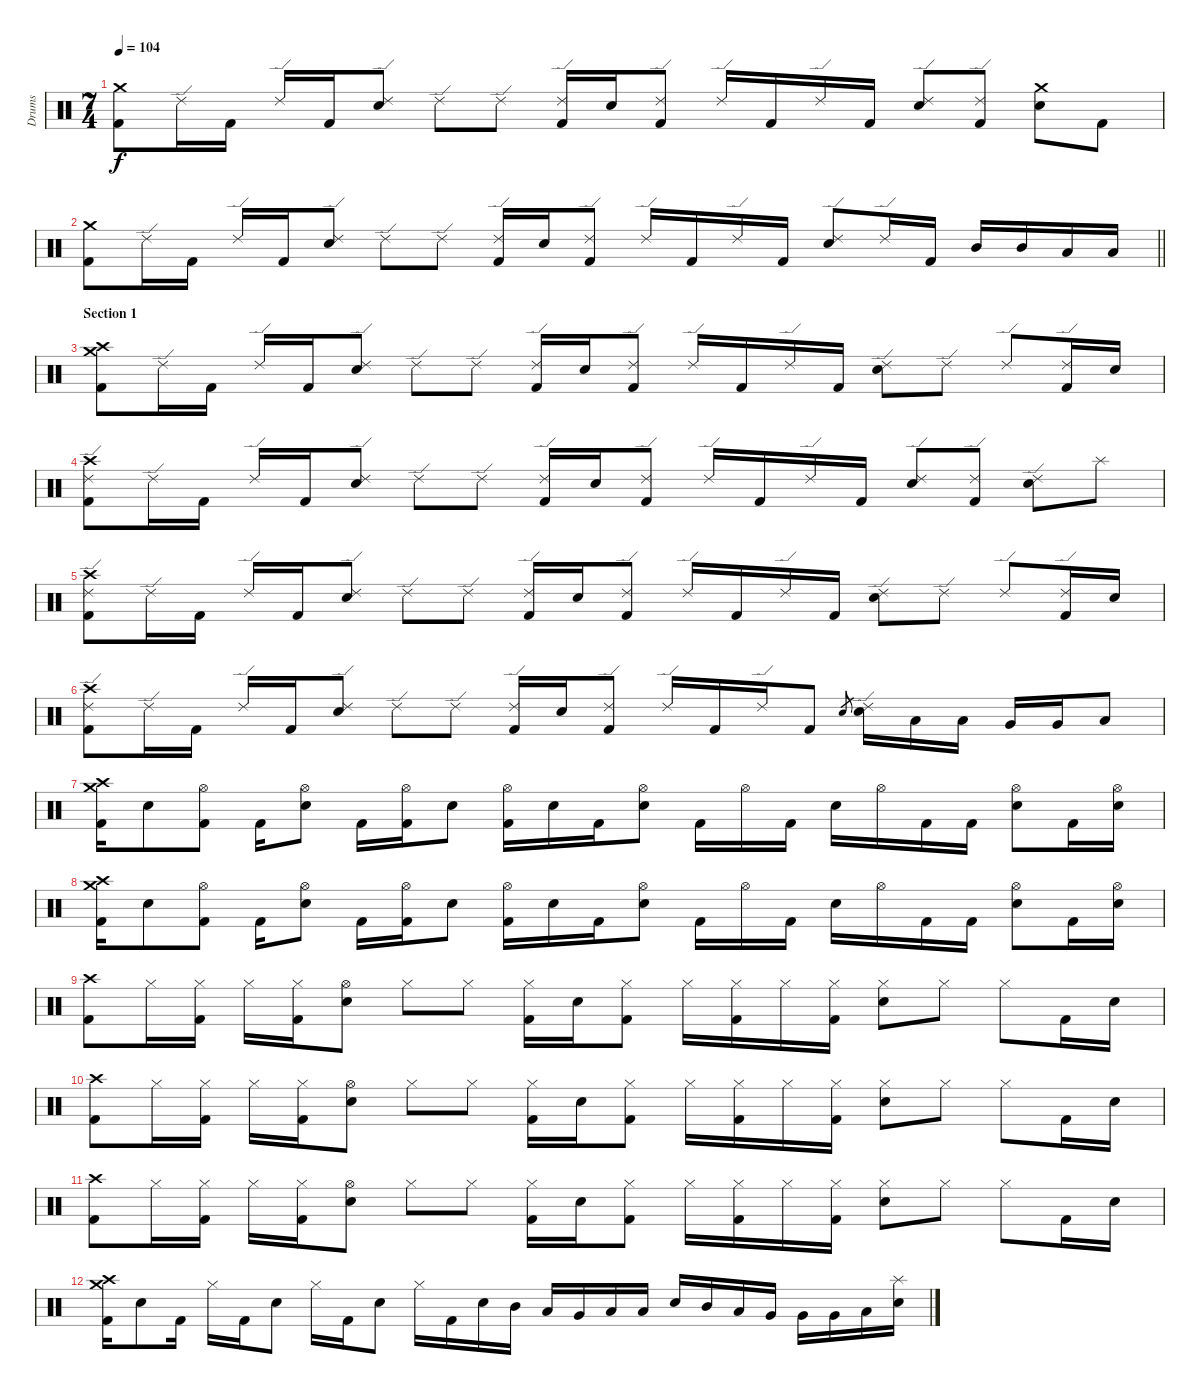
\track ("Drums" "Drums") {instrument percussion}
\staff {score}
\articulation defaults
\ts (7 4)
\tempo 104
\clef neutral
\ks c
("Crash medium (hit)" "Kick (hit) 2").8{dy f} "Ride (edge) 2".16 "Kick (hit) 2".16 "Ride (edge) 2".16 "Kick (hit) 2".16 ("Ride (edge) 2" "Electric Snare (hit)").8 "Ride (edge) 2".8 "Ride (edge) 2".8 ("Ride (edge) 2" "Kick (hit) 2").16 "Electric Snare (hit)".16 ("Ride (edge) 2" "Kick (hit) 2").8 "Ride (edge) 2".16 "Kick (hit) 2".16 "Ride (edge) 2".16 "Kick (hit) 2".16 ("Ride (edge) 2" "Electric Snare (hit)").8 ("Ride (edge) 2" "Kick (hit) 2").8 ("Crash medium (hit)" "Electric Snare (hit)").8 "Kick (hit) 2".8 |
\barLineRight lightlight
("Crash medium (hit)" "Kick (hit) 2").8 "Ride (edge) 2".16 "Kick (hit) 2".16 "Ride (edge) 2".16 "Kick (hit) 2".16 ("Ride (edge) 2" "Electric Snare (hit)").8 "Ride (edge) 2".8 "Ride (edge) 2".8 ("Ride (edge) 2" "Kick (hit) 2").16 "Electric Snare (hit)".16 ("Ride (edge) 2" "Kick (hit) 2").8 "Ride (edge) 2".16 "Kick (hit) 2".16 "Ride (edge) 2".16 "Kick (hit) 2".16 ("Ride (edge) 2" "Electric Snare (hit)").8 "Ride (edge) 2".16 "Kick (hit) 2".16 "Mid Tom (hit)".16 "Mid Tom (hit)".16 "Low Tom (hit)".16 "Low Tom (hit)".16 |
\section ("" "Section 1")
("Crash medium (hit)" "Crash high (hit)" "Kick (hit) 2").8 "Ride (edge) 2".16 "Kick (hit) 2".16 "Ride (edge) 2".16 "Kick (hit) 2".16 ("Ride (edge) 2" "Electric Snare (hit)").8 "Ride (edge) 2".8 "Ride (edge) 2".8 ("Ride (edge) 2" "Kick (hit) 2").16 "Electric Snare (hit)".16 ("Ride (edge) 2" "Kick (hit) 2").8 "Ride (edge) 2".16 "Kick (hit) 2".16 "Ride (edge) 2".16 "Kick (hit) 2".16 ("Ride (edge) 2" "Electric Snare (hit)").8 "Ride (edge) 2".8 "Ride (edge) 2".8 ("Ride (edge) 2" "Kick (hit) 2").16 "Electric Snare (hit)".16 |
("Ride (edge) 2" "Crash high (hit)" "Kick (hit) 2").8 "Ride (edge) 2".16 "Kick (hit) 2".16 "Ride (edge) 2".16 "Kick (hit) 2".16 ("Ride (edge) 2" "Electric Snare (hit)").8 "Ride (edge) 2".8 "Ride (edge) 2".8 ("Ride (edge) 2" "Kick (hit) 2").16 "Electric Snare (hit)".16 ("Ride (edge) 2" "Kick (hit) 2").8 "Ride (edge) 2".16 "Kick (hit) 2".16 "Ride (edge) 2".16 "Kick (hit) 2".16 ("Ride (edge) 2" "Electric Snare (hit)").8 ("Ride (edge) 2" "Kick (hit) 2").8 ("Ride (edge) 2" "Electric Snare (hit)").8 "Splash (hit)".8 |
("Ride (edge) 2" "Crash high (hit)" "Kick (hit) 2").8 "Ride (edge) 2".16 "Kick (hit) 2".16 "Ride (edge) 2".16 "Kick (hit) 2".16 ("Ride (edge) 2" "Electric Snare (hit)").8 "Ride (edge) 2".8 "Ride (edge) 2".8 ("Ride (edge) 2" "Kick (hit) 2").16 "Electric Snare (hit)".16 ("Ride (edge) 2" "Kick (hit) 2").8 "Ride (edge) 2".16 "Kick (hit) 2".16 "Ride (edge) 2".16 "Kick (hit) 2".16 ("Ride (edge) 2" "Electric Snare (hit)").8 "Ride (edge) 2".8 "Ride (edge) 2".8 ("Ride (edge) 2" "Kick (hit) 2").16 "Electric Snare (hit)".16 |
("Ride (edge) 2" "Crash high (hit)" "Kick (hit) 2").8 "Ride (edge) 2".16 "Kick (hit) 2".16 "Ride (edge) 2".16 "Kick (hit) 2".16 ("Ride (edge) 2" "Electric Snare (hit)").8 "Ride (edge) 2".8 "Ride (edge) 2".8 ("Ride (edge) 2" "Kick (hit) 2").16 "Electric Snare (hit)".16 ("Ride (edge) 2" "Kick (hit) 2").8 "Ride (edge) 2".16 "Kick (hit) 2".16 "Ride (edge) 2".16 "Kick (hit) 2".8 "Electric Snare (hit)".8{gr} ("Ride (edge) 2" "Electric Snare (hit)").16 "Low Tom (hit)".16 "Low Tom (hit)".16 "Very Low Tom (hit)".16 "Very Low Tom (hit)".16 "Low Floor Tom (hit)".8 |
("Crash medium (hit)" "Crash high (hit)" "Kick (hit) 2").16 "Electric Snare (hit)".8 ("Hi-Hat (open)" "Kick (hit) 2").8 "Kick (hit) 2".16 ("Hi-Hat (open)" "Electric Snare (hit)").8 "Kick (hit) 2".16 ("Hi-Hat (open)" "Kick (hit) 2").16 "Electric Snare (hit)".8 ("Hi-Hat (open)" "Kick (hit) 2").16 "Electric Snare (hit)".16 "Kick (hit) 2".16 ("Hi-Hat (open)" "Electric Snare (hit)").8 "Kick (hit) 2".16 "Hi-Hat (open)".16 "Kick (hit) 2".16 "Electric Snare (hit)".16 "Hi-Hat (open)".16 "Kick (hit) 2".16 "Kick (hit) 2".16 ("Hi-Hat (open)" "Electric Snare (hit)").8 "Kick (hit) 2".16 ("Hi-Hat (open)" "Electric Snare (hit)").16 |
("Crash medium (hit)" "Crash high (hit)" "Kick (hit) 2").16 "Electric Snare (hit)".8 ("Hi-Hat (open)" "Kick (hit) 2").8 "Kick (hit) 2".16 ("Hi-Hat (open)" "Electric Snare (hit)").8 "Kick (hit) 2".16 ("Hi-Hat (open)" "Kick (hit) 2").16 "Electric Snare (hit)".8 ("Hi-Hat (open)" "Kick (hit) 2").16 "Electric Snare (hit)".16 "Kick (hit) 2".16 ("Hi-Hat (open)" "Electric Snare (hit)").8 "Kick (hit) 2".16 "Hi-Hat (open)".16 "Kick (hit) 2".16 "Electric Snare (hit)".16 "Hi-Hat (open)".16 "Kick (hit) 2".16 "Kick (hit) 2".16 ("Hi-Hat (open)" "Electric Snare (hit)").8 "Kick (hit) 2".16 ("Hi-Hat (open)" "Electric Snare (hit)").16 |
("Crash high (hit)" "Kick (hit) 2").8 "Hi-Hat (closed)".16 ("Hi-Hat (closed)" "Kick (hit) 2").16 "Hi-Hat (closed)".16 ("Hi-Hat (closed)" "Kick (hit) 2").16 ("Hi-Hat (open)" "Electric Snare (hit)").8 "Hi-Hat (closed)".8 "Hi-Hat (closed)".8 ("Hi-Hat (closed)" "Kick (hit) 2").16 "Electric Snare (hit)".16 ("Hi-Hat (closed)" "Kick (hit) 2").8 "Hi-Hat (closed)".16 ("Hi-Hat (closed)" "Kick (hit) 2").16 "Hi-Hat (closed)".16 ("Hi-Hat (closed)" "Kick (hit) 2").16 ("Hi-Hat (closed)" "Electric Snare (hit)").8 "Hi-Hat (closed)".8 "Hi-Hat (closed)".8 "Kick (hit) 2".16 "Electric Snare (hit)".16 |
("Crash high (hit)" "Kick (hit) 2").8 "Hi-Hat (closed)".16 ("Hi-Hat (closed)" "Kick (hit) 2").16 "Hi-Hat (closed)".16 ("Hi-Hat (closed)" "Kick (hit) 2").16 ("Hi-Hat (open)" "Electric Snare (hit)").8 "Hi-Hat (closed)".8 "Hi-Hat (closed)".8 ("Hi-Hat (closed)" "Kick (hit) 2").16 "Electric Snare (hit)".16 ("Hi-Hat (closed)" "Kick (hit) 2").8 "Hi-Hat (closed)".16 ("Hi-Hat (closed)" "Kick (hit) 2").16 "Hi-Hat (closed)".16 ("Hi-Hat (closed)" "Kick (hit) 2").16 ("Hi-Hat (closed)" "Electric Snare (hit)").8 "Hi-Hat (closed)".8 "Hi-Hat (closed)".8 "Kick (hit) 2".16 "Electric Snare (hit)".16 |
("Crash high (hit)" "Kick (hit) 2").8 "Hi-Hat (closed)".16 ("Hi-Hat (closed)" "Kick (hit) 2").16 "Hi-Hat (closed)".16 ("Hi-Hat (closed)" "Kick (hit) 2").16 ("Hi-Hat (open)" "Electric Snare (hit)").8 "Hi-Hat (closed)".8 "Hi-Hat (closed)".8 ("Hi-Hat (closed)" "Kick (hit) 2").16 "Electric Snare (hit)".16 ("Hi-Hat (closed)" "Kick (hit) 2").8 "Hi-Hat (closed)".16 ("Hi-Hat (closed)" "Kick (hit) 2").16 "Hi-Hat (closed)".16 ("Hi-Hat (closed)" "Kick (hit) 2").16 ("Hi-Hat (closed)" "Electric Snare (hit)").8 "Hi-Hat (closed)".8 "Hi-Hat (closed)".8 "Kick (hit) 2".16 "Electric Snare (hit)".16 |
("Crash medium (hit)" "Crash high (hit)" "Kick (hit) 2").16 "Electric Snare (hit)".8 "Kick (hit) 2".16 "Hi-Hat (closed)".16 "Kick (hit) 2".16 "Electric Snare (hit)".8 "Hi-Hat (closed)".16 "Kick (hit) 2".16 "Electric Snare (hit)".8 "Hi-Hat (closed)".16 "Kick (hit) 2".16 "Electric Snare (hit)".16 "Mid Tom (hit)".16 "Low Tom (hit)".16 "Very Low Tom (hit)".16 "Low Floor Tom (hit)".16 "Low Floor Tom (hit)".16 "Electric Snare (hit)".16 "Mid Tom (hit)".16 "Low Tom (hit)".16 "Very Low Tom (hit)".16 "Very Low Tom (hit)".16 "Very Low Tom (hit)".16 "Low Floor Tom (hit)".16 ("Splash (hit)" "Electric Snare (hit)").16
